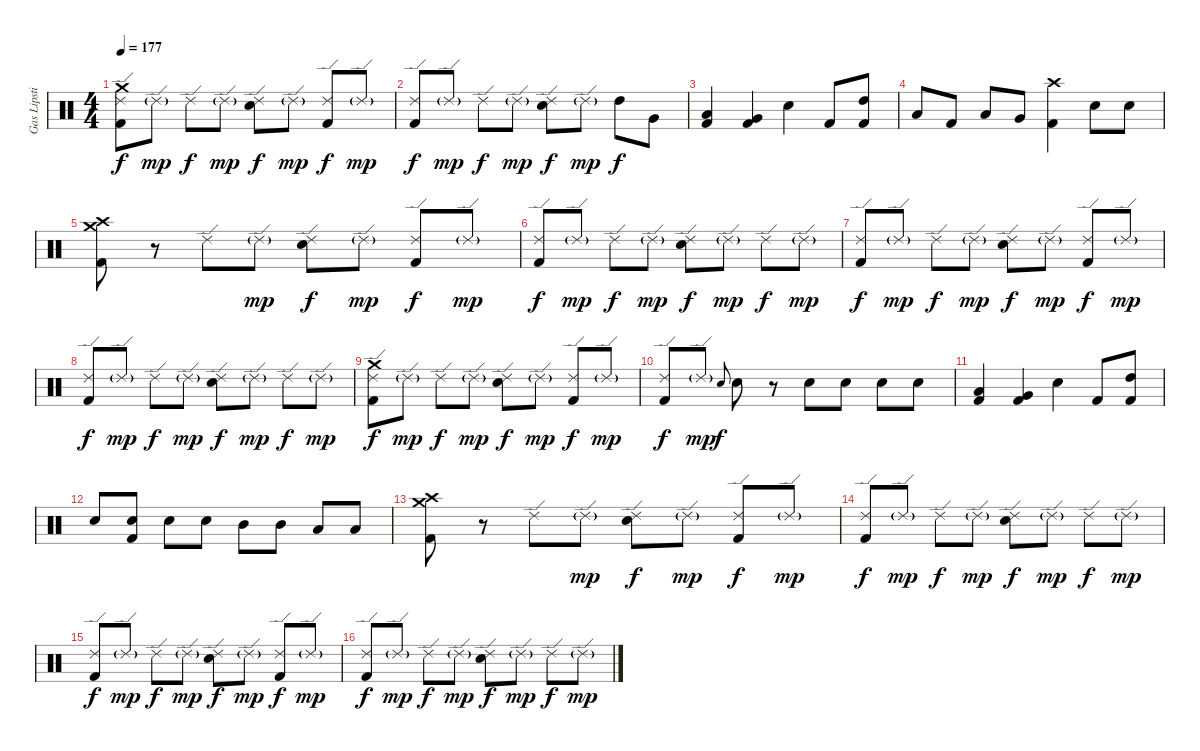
\track ("Gas Lipstick (Drums)" "Gas Lipsti") {instrument percussion}
\staff {score}
\articulation defaults
\ts (4 4)
\tempo 177
\clef neutral
\ks c
("Crash medium (hit)" "Ride (edge) 2" "Kick (hit) 2").8{dy f} "Ride (edge) 2"{g}.8{dy mp} "Ride (edge) 2".8{dy f} "Ride (edge) 2"{g}.8{dy mp} ("Ride (edge) 2" "Snare (hit) 2").8{dy f} "Ride (edge) 2"{g}.8{dy mp} ("Ride (edge) 2" "Kick (hit) 2").8{dy f} "Ride (edge) 2"{g}.8{dy mp} |
("Ride (edge) 2" "Kick (hit) 2").8{dy f} "Ride (edge) 2"{g}.8{dy mp} "Ride (edge) 2".8{dy f} "Ride (edge) 2"{g}.8{dy mp} ("Ride (edge) 2" "Snare (hit) 2").8{dy f} "Ride (edge) 2"{g}.8{dy mp} "High Tom (hit)".8{dy f} "Very Low Tom (hit)".8 |
("Low Tom (hit)" "Kick (hit) 2").4 ("Very Low Tom (hit)" "Kick (hit) 2").4 "Snare (hit) 2".4 "Kick (hit) 2".8 ("High Tom (hit)" "Kick (hit) 2").8 |
"Low Tom (hit)".8 "Kick (hit) 2".8 "Low Tom (hit)".8 "Very Low Tom (hit)".8 ("Crash high (hit)" "Kick (hit) 2").4 "Snare (hit) 2".8 "Snare (hit) 2".8 |
("Crash medium (hit)" "Crash high (hit)" "Kick (hit) 2").8 r.8 "Ride (edge) 2".8 "Ride (edge) 2"{g}.8{dy mp} ("Ride (edge) 2" "Snare (hit) 2").8{dy f} "Ride (edge) 2"{g}.8{dy mp} ("Ride (edge) 2" "Kick (hit) 2").8{dy f} "Ride (edge) 2"{g}.8{dy mp} |
("Ride (edge) 2" "Kick (hit) 2").8{dy f} "Ride (edge) 2"{g}.8{dy mp} "Ride (edge) 2".8{dy f} "Ride (edge) 2"{g}.8{dy mp} ("Ride (edge) 2" "Snare (hit) 2").8{dy f} "Ride (edge) 2"{g}.8{dy mp} "Ride (edge) 2".8{dy f} "Ride (edge) 2"{g}.8{dy mp} |
("Ride (edge) 2" "Kick (hit) 2").8{dy f} "Ride (edge) 2"{g}.8{dy mp} "Ride (edge) 2".8{dy f} "Ride (edge) 2"{g}.8{dy mp} ("Ride (edge) 2" "Snare (hit) 2").8{dy f} "Ride (edge) 2"{g}.8{dy mp} ("Ride (edge) 2" "Kick (hit) 2").8{dy f} "Ride (edge) 2"{g}.8{dy mp} |
("Ride (edge) 2" "Kick (hit) 2").8{dy f} "Ride (edge) 2"{g}.8{dy mp} "Ride (edge) 2".8{dy f} "Ride (edge) 2"{g}.8{dy mp} ("Ride (edge) 2" "Snare (hit) 2").8{dy f} "Ride (edge) 2"{g}.8{dy mp} "Ride (edge) 2".8{dy f} "Ride (edge) 2"{g}.8{dy mp} |
("Crash medium (hit)" "Ride (edge) 2" "Kick (hit) 2").8{dy f} "Ride (edge) 2"{g}.8{dy mp} "Ride (edge) 2".8{dy f} "Ride (edge) 2"{g}.8{dy mp} ("Ride (edge) 2" "Snare (hit) 2").8{dy f} "Ride (edge) 2"{g}.8{dy mp} ("Ride (edge) 2" "Kick (hit) 2").8{dy f} "Ride (edge) 2"{g}.8{dy mp} |
("Ride (edge) 2" "Kick (hit) 2").8{dy f} "Ride (edge) 2"{g}.8{dy mp} "Snare (hit) 2".8{gr onbeat dy f} "Snare (hit) 2".8 r.8 "Snare (hit) 2".8 "Snare (hit) 2".8 "Snare (hit) 2".8 "Snare (hit) 2".8 |
("Low Tom (hit)" "Kick (hit) 2").4 ("Very Low Tom (hit)" "Kick (hit) 2").4 "Snare (hit) 2".4 "Kick (hit) 2".8 ("High Tom (hit)" "Kick (hit) 2").8 |
"Snare (hit) 2".8 ("Snare (hit) 2" "Kick (hit) 2").8 "Snare (hit) 2".8 "Snare (hit) 2".8 "Mid Tom (hit)".8 "Mid Tom (hit)".8 "Low Tom (hit)".8 "Low Tom (hit)".8 |
("Crash medium (hit)" "Crash high (hit)" "Kick (hit) 2").8 r.8 "Ride (edge) 2".8 "Ride (edge) 2"{g}.8{dy mp} ("Ride (edge) 2" "Snare (hit) 2").8{dy f} "Ride (edge) 2"{g}.8{dy mp} ("Ride (edge) 2" "Kick (hit) 2").8{dy f} "Ride (edge) 2"{g}.8{dy mp} |
("Ride (edge) 2" "Kick (hit) 2").8{dy f} "Ride (edge) 2"{g}.8{dy mp} "Ride (edge) 2".8{dy f} "Ride (edge) 2"{g}.8{dy mp} ("Ride (edge) 2" "Snare (hit) 2").8{dy f} "Ride (edge) 2"{g}.8{dy mp} "Ride (edge) 2".8{dy f} "Ride (edge) 2"{g}.8{dy mp} |
("Ride (edge) 2" "Kick (hit) 2").8{dy f} "Ride (edge) 2"{g}.8{dy mp} "Ride (edge) 2".8{dy f} "Ride (edge) 2"{g}.8{dy mp} ("Ride (edge) 2" "Snare (hit) 2").8{dy f} "Ride (edge) 2"{g}.8{dy mp} ("Ride (edge) 2" "Kick (hit) 2").8{dy f} "Ride (edge) 2"{g}.8{dy mp} |
("Ride (edge) 2" "Kick (hit) 2").8{dy f} "Ride (edge) 2"{g}.8{dy mp} "Ride (edge) 2".8{dy f} "Ride (edge) 2"{g}.8{dy mp} ("Ride (edge) 2" "Snare (hit) 2").8{dy f} "Ride (edge) 2"{g}.8{dy mp} "Ride (edge) 2".8{dy f} "Ride (edge) 2"{g}.8{dy mp}
